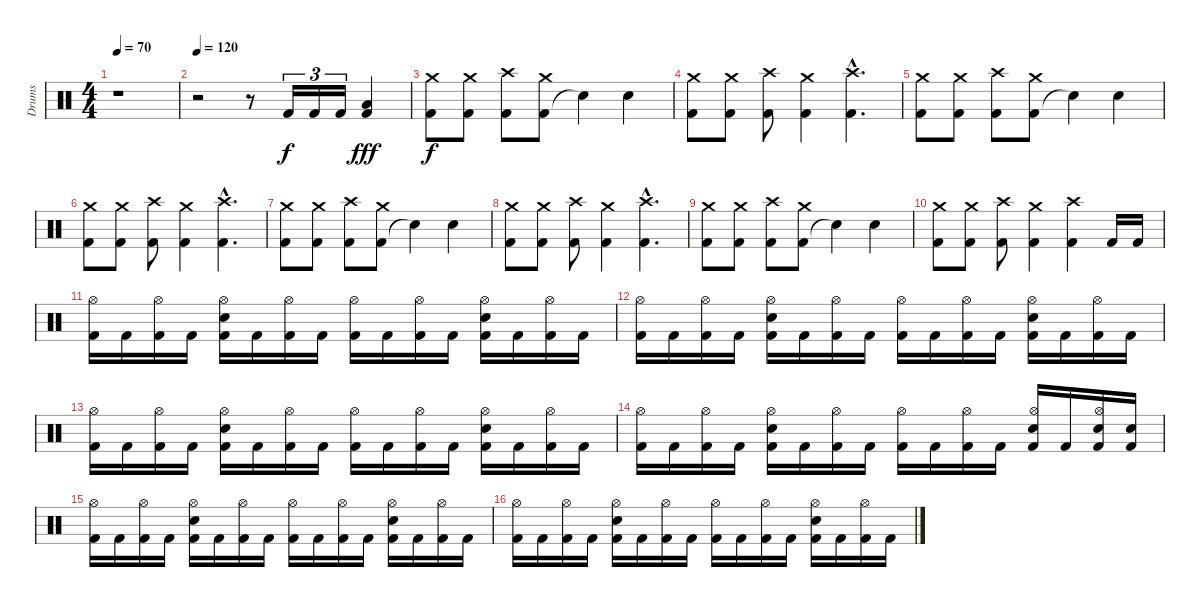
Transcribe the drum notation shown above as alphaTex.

\track ("Drums" "Drums") {instrument percussion}
\staff {score}
\articulation defaults
\ts (4 4)
\tempo 70
\clef neutral
\ks c
r.1{dy f} |
\tempo 120
r.2 r.8 "Kick (hit) 2".16{tu (3 2)} "Kick (hit) 2".16{tu (3 2)} "Kick (hit) 2".16{tu (3 2)} ("Kick (hit) 2" "Low Tom (hit)").4{dy fff} |
("Kick (hit) 2" "Crash medium (hit)").8{dy f} ("Kick (hit) 2" "Crash medium (hit)").8 ("Kick (hit) 2" "Crash high (hit)").8 ("Kick (hit) 2" "Crash medium (hit)").8 "Snare (hit)"{t}.4 "Snare (hit) 2".4 |
("Kick (hit) 2" "Crash medium (hit)").8 ("Kick (hit) 2" "Crash medium (hit)").8 ("Kick (hit) 2" "Crash high (hit)").8 ("Kick (hit) 2" "Crash medium (hit)").4 ("Kick (hit) 2"{hac} "Crash high (hit)"{hac}).4{d} |
("Kick (hit) 2" "Crash medium (hit)").8 ("Kick (hit) 2" "Crash medium (hit)").8 ("Kick (hit) 2" "Crash high (hit)").8 ("Kick (hit) 2" "Crash medium (hit)").8 "Snare (hit)"{t}.4 "Snare (hit) 2".4 |
("Kick (hit) 2" "Crash medium (hit)").8 ("Kick (hit) 2" "Crash medium (hit)").8 ("Kick (hit) 2" "Crash high (hit)").8 ("Kick (hit) 2" "Crash medium (hit)").4 ("Kick (hit) 2"{hac} "Crash high (hit)"{hac}).4{d} |
("Kick (hit) 2" "Crash medium (hit)").8 ("Kick (hit) 2" "Crash medium (hit)").8 ("Kick (hit) 2" "Crash high (hit)").8 ("Kick (hit) 2" "Crash medium (hit)").8 "Snare (hit)"{t}.4 "Snare (hit) 2".4 |
("Kick (hit) 2" "Crash medium (hit)").8 ("Kick (hit) 2" "Crash medium (hit)").8 ("Kick (hit) 2" "Crash high (hit)").8 ("Kick (hit) 2" "Crash medium (hit)").4 ("Kick (hit) 2"{hac} "Crash high (hit)"{hac}).4{d} |
("Kick (hit) 2" "Crash medium (hit)").8 ("Kick (hit) 2" "Crash medium (hit)").8 ("Kick (hit) 2" "Crash high (hit)").8 ("Kick (hit) 2" "Crash medium (hit)").8 "Snare (hit)"{t}.4 "Snare (hit) 2".4 |
("Kick (hit) 2" "Crash medium (hit)").8 ("Kick (hit) 2" "Crash medium (hit)").8 ("Kick (hit) 2" "Crash high (hit)").8 ("Kick (hit) 2" "Crash medium (hit)").4 ("Kick (hit) 2" "Crash high (hit)").4 "Kick (hit) 2".16 "Kick (hit) 2".16 |
("Kick (hit) 2" "Hi-Hat (open)").16 "Kick (hit) 2".16 ("Kick (hit) 2" "Hi-Hat (open)").16 "Kick (hit) 2".16 ("Kick (hit) 2" "Electric Snare (hit)" "Hi-Hat (open)").16 "Kick (hit) 2".16 ("Kick (hit) 2" "Hi-Hat (open)").16 "Kick (hit) 2".16 ("Kick (hit) 2" "Hi-Hat (open)").16 "Kick (hit) 2".16 ("Kick (hit) 2" "Hi-Hat (open)").16 "Kick (hit) 2".16 ("Kick (hit) 2" "Electric Snare (hit)" "Hi-Hat (open)").16 "Kick (hit) 2".16 ("Kick (hit) 2" "Hi-Hat (open)").16 "Kick (hit) 2".16 |
("Kick (hit) 2" "Hi-Hat (open)").16 "Kick (hit) 2".16 ("Kick (hit) 2" "Hi-Hat (open)").16 "Kick (hit) 2".16 ("Kick (hit) 2" "Electric Snare (hit)" "Hi-Hat (open)").16 "Kick (hit) 2".16 ("Kick (hit) 2" "Hi-Hat (open)").16 "Kick (hit) 2".16 ("Kick (hit) 2" "Hi-Hat (open)").16 "Kick (hit) 2".16 ("Kick (hit) 2" "Hi-Hat (open)").16 "Kick (hit) 2".16 ("Kick (hit) 2" "Electric Snare (hit)" "Hi-Hat (open)").16 "Kick (hit) 2".16 ("Kick (hit) 2" "Hi-Hat (open)").16 "Kick (hit) 2".16 |
("Kick (hit) 2" "Hi-Hat (open)").16 "Kick (hit) 2".16 ("Kick (hit) 2" "Hi-Hat (open)").16 "Kick (hit) 2".16 ("Kick (hit) 2" "Electric Snare (hit)" "Hi-Hat (open)").16 "Kick (hit) 2".16 ("Kick (hit) 2" "Hi-Hat (open)").16 "Kick (hit) 2".16 ("Kick (hit) 2" "Hi-Hat (open)").16 "Kick (hit) 2".16 ("Kick (hit) 2" "Hi-Hat (open)").16 "Kick (hit) 2".16 ("Kick (hit) 2" "Electric Snare (hit)" "Hi-Hat (open)").16 "Kick (hit) 2".16 ("Kick (hit) 2" "Hi-Hat (open)").16 "Kick (hit) 2".16 |
("Kick (hit) 2" "Hi-Hat (open)").16 "Kick (hit) 2".16 ("Kick (hit) 2" "Hi-Hat (open)").16 "Kick (hit) 2".16 ("Kick (hit) 2" "Electric Snare (hit)" "Hi-Hat (open)").16 "Kick (hit) 2".16 ("Kick (hit) 2" "Hi-Hat (open)").16 "Kick (hit) 2".16 ("Kick (hit) 2" "Hi-Hat (open)").16 "Kick (hit) 2".16 ("Kick (hit) 2" "Hi-Hat (open)").16 "Kick (hit) 2".16 ("Kick (hit) 2" "Electric Snare (hit)" "Hi-Hat (open)").16 "Kick (hit) 2".16 ("Kick (hit) 2" "Electric Snare (hit)" "Hi-Hat (open)").16 ("Kick (hit) 2" "Electric Snare (hit)").16 |
("Kick (hit) 2" "Hi-Hat (open)").16 "Kick (hit) 2".16 ("Kick (hit) 2" "Hi-Hat (open)").16 "Kick (hit) 2".16 ("Kick (hit) 2" "Electric Snare (hit)" "Hi-Hat (open)").16 "Kick (hit) 2".16 ("Kick (hit) 2" "Hi-Hat (open)").16 "Kick (hit) 2".16 ("Kick (hit) 2" "Hi-Hat (open)").16 "Kick (hit) 2".16 ("Kick (hit) 2" "Hi-Hat (open)").16 "Kick (hit) 2".16 ("Kick (hit) 2" "Electric Snare (hit)" "Hi-Hat (open)").16 "Kick (hit) 2".16 ("Kick (hit) 2" "Hi-Hat (open)").16 "Kick (hit) 2".16 |
("Kick (hit) 2" "Hi-Hat (open)").16 "Kick (hit) 2".16 ("Kick (hit) 2" "Hi-Hat (open)").16 "Kick (hit) 2".16 ("Kick (hit) 2" "Electric Snare (hit)" "Hi-Hat (open)").16 "Kick (hit) 2".16 ("Kick (hit) 2" "Hi-Hat (open)").16 "Kick (hit) 2".16 ("Kick (hit) 2" "Hi-Hat (open)").16 "Kick (hit) 2".16 ("Kick (hit) 2" "Hi-Hat (open)").16 "Kick (hit) 2".16 ("Kick (hit) 2" "Electric Snare (hit)" "Hi-Hat (open)").16 "Kick (hit) 2".16 ("Kick (hit) 2" "Hi-Hat (open)").16 "Kick (hit) 2".16
